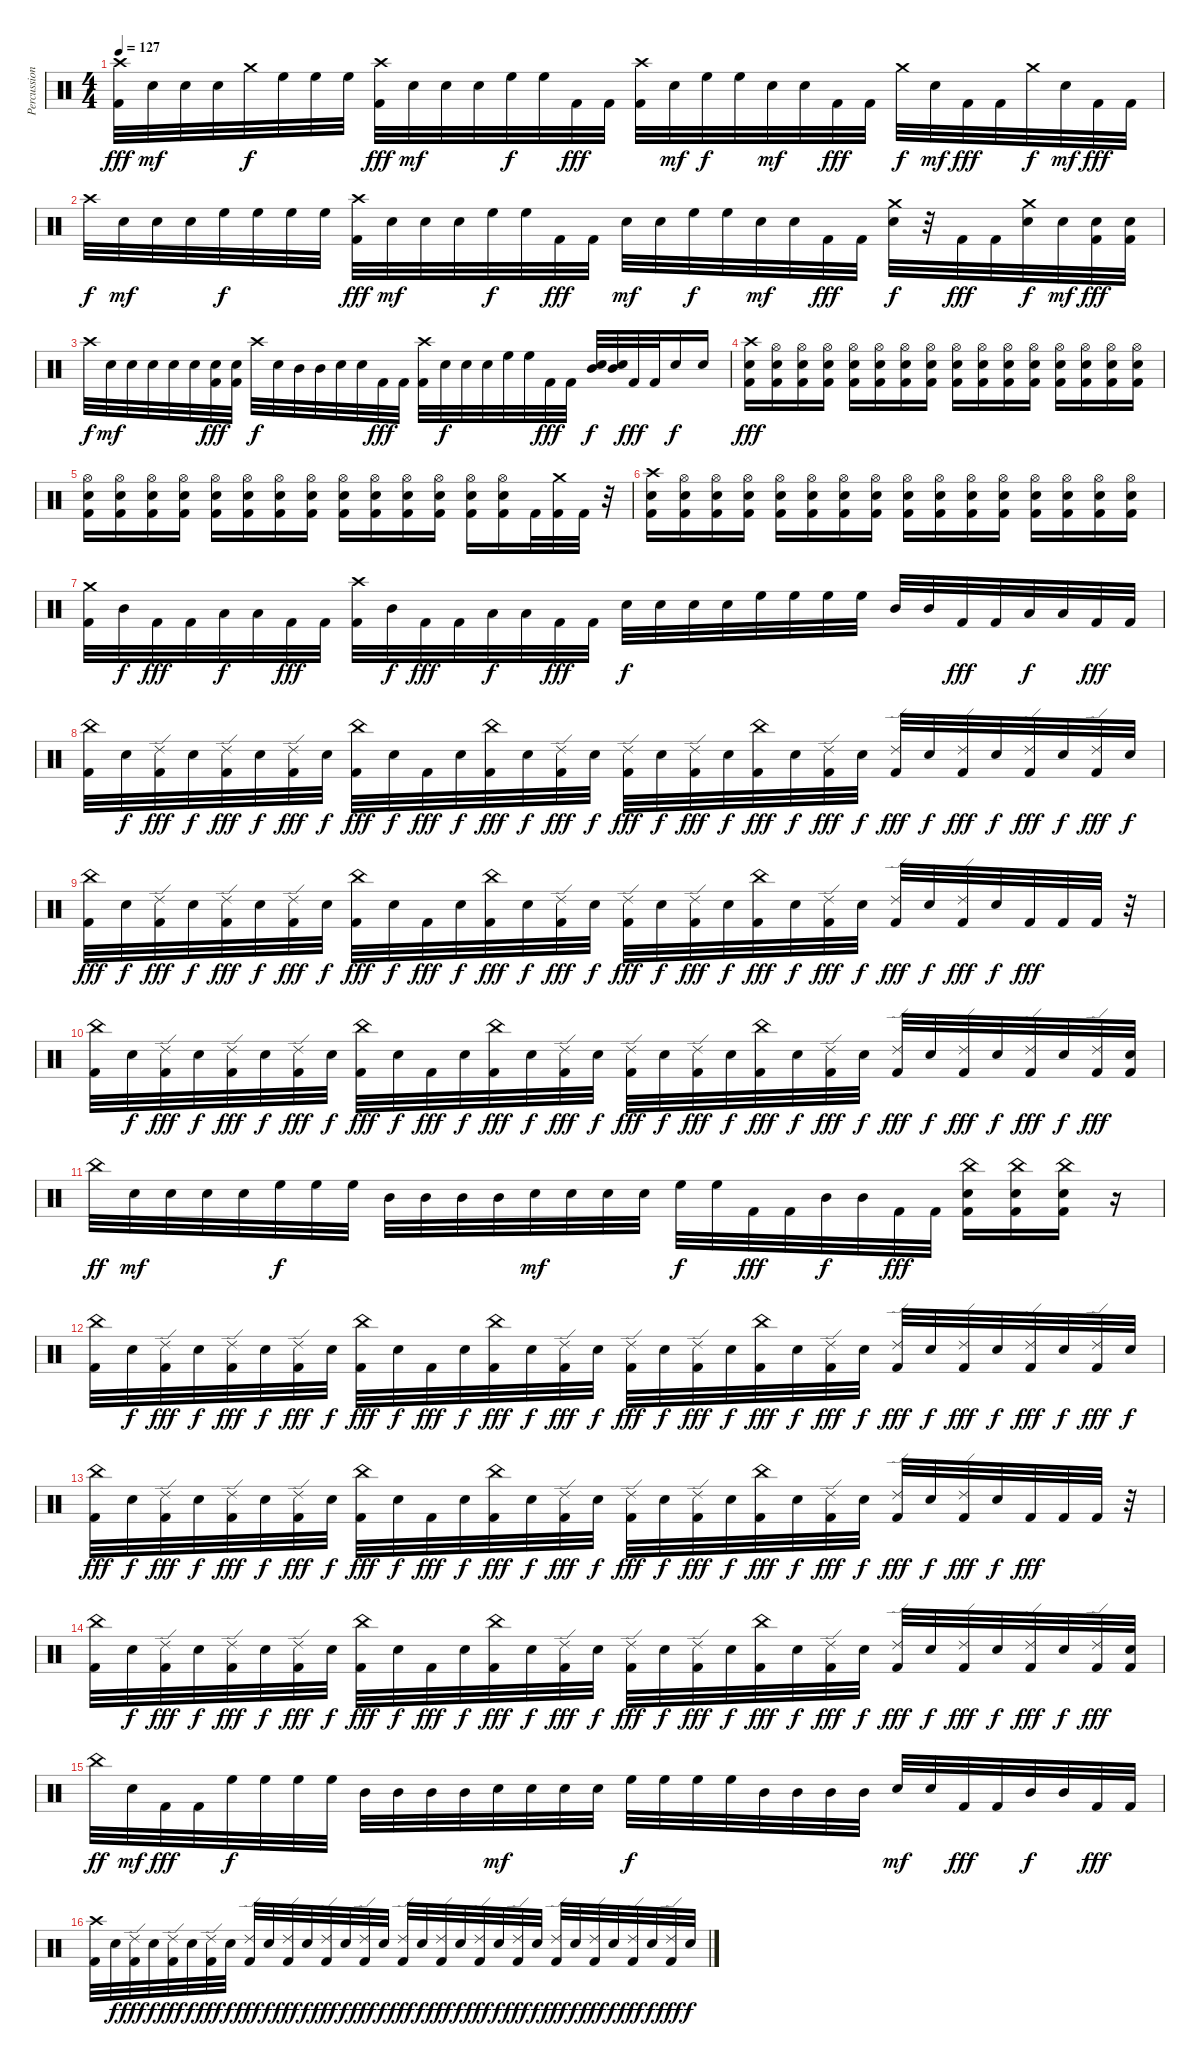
\track ("Percussion" "Percussion") {instrument percussion}
\staff {score}
\articulation defaults
\ts (4 4)
\tempo 127
\clef neutral
\ks c
("Crash high (hit)" "Kick (hit) 2").32{dy fff} "Electric Snare (hit)".32{dy mf} "Electric Snare (hit)".32 "Electric Snare (hit)".32 "Crash medium (hit)".32{dy f} "High Floor Tom (hit)".32 "High Floor Tom (hit)".32 "High Floor Tom (hit)".32 ("Crash high (hit)" "Kick (hit) 2").32{dy fff} "Electric Snare (hit)".32{dy mf} "Electric Snare (hit)".32 "Electric Snare (hit)".32 "High Floor Tom (hit)".32{dy f} "High Floor Tom (hit)".32 "Kick (hit) 2".32{dy fff} "Kick (hit) 2".32 ("Crash high (hit)" "Kick (hit) 2").32 "Electric Snare (hit)".32{dy mf} "High Floor Tom (hit)".32{dy f} "High Floor Tom (hit)".32 "Electric Snare (hit)".32{dy mf} "Electric Snare (hit)".32 "Kick (hit) 2".32{dy fff} "Kick (hit) 2".32 "Crash medium (hit)".32{dy f} "Electric Snare (hit)".32{dy mf} "Kick (hit) 2".32{dy fff} "Kick (hit) 2".32 "Crash medium (hit)".32{dy f} "Electric Snare (hit)".32{dy mf} "Kick (hit) 2".32{dy fff} "Kick (hit) 2".32 |
"Crash high (hit)".32{dy f} "Electric Snare (hit)".32{dy mf} "Electric Snare (hit)".32 "Electric Snare (hit)".32 "High Floor Tom (hit)".32{dy f} "High Floor Tom (hit)".32 "High Floor Tom (hit)".32 "High Floor Tom (hit)".32 ("Crash high (hit)" "Kick (hit) 2").32{dy fff} "Electric Snare (hit)".32{dy mf} "Electric Snare (hit)".32 "Electric Snare (hit)".32 "High Floor Tom (hit)".32{dy f} "High Floor Tom (hit)".32 "Kick (hit) 2".32{dy fff} "Kick (hit) 2".32 "Electric Snare (hit)".32{dy mf} "Electric Snare (hit)".32 "High Floor Tom (hit)".32{dy f} "High Floor Tom (hit)".32 "Electric Snare (hit)".32{dy mf} "Electric Snare (hit)".32 "Kick (hit) 2".32{dy fff} "Kick (hit) 2".32 ("Crash medium (hit)" "Electric Snare (hit)").32{dy f} r.32 "Kick (hit) 2".32{dy fff} "Kick (hit) 2".32 ("Crash medium (hit)" "Electric Snare (hit)").32{dy f} "Electric Snare (hit)".32{dy mf} ("Electric Snare (hit)" "Kick (hit) 2").32{dy fff} ("Electric Snare (hit)" "Kick (hit) 2").32 |
"Crash high (hit)".32{dy f} "Electric Snare (hit)".32{dy mf} "Electric Snare (hit)".32 "Electric Snare (hit)".32 "Electric Snare (hit)".32 "Electric Snare (hit)".32 ("Electric Snare (hit)" "Kick (hit) 2").32{dy fff} ("Electric Snare (hit)" "Kick (hit) 2").32 "Crash high (hit)".32{dy f} "Electric Snare (hit)".32 "Mid Tom (hit)".32 "Mid Tom (hit)".32 "Electric Snare (hit)".32 "Electric Snare (hit)".32 "Kick (hit) 2".32{dy fff} "Kick (hit) 2".32 ("Crash high (hit)" "Kick (hit) 2").32 "Electric Snare (hit)".32{dy f} "Electric Snare (hit)".32 "Electric Snare (hit)".32 "High Floor Tom (hit)".32 "High Floor Tom (hit)".32 "Kick (hit) 2".32{dy fff} "Kick (hit) 2".32 ("Mid Tom (hit)" "Electric Snare (hit)").32{dy f} ("Mid Tom (hit)" "Electric Snare (hit)").32 "Kick (hit) 2".32{dy fff} "Kick (hit) 2".32 "Electric Snare (hit)".16{dy f} "Electric Snare (hit)".16 |
("Crash high (hit)" "Electric Snare (hit)" "Kick (hit) 2").16{dy fff} ("Hi-Hat (open)" "Electric Snare (hit)" "Kick (hit) 2").16 ("Hi-Hat (open)" "Electric Snare (hit)" "Kick (hit) 2").16 ("Hi-Hat (open)" "Electric Snare (hit)" "Kick (hit) 2").16 ("Hi-Hat (open)" "Electric Snare (hit)" "Kick (hit) 2").16 ("Hi-Hat (open)" "Electric Snare (hit)" "Kick (hit) 2").16 ("Hi-Hat (open)" "Electric Snare (hit)" "Kick (hit) 2").16 ("Hi-Hat (open)" "Electric Snare (hit)" "Kick (hit) 2").16 ("Hi-Hat (open)" "Electric Snare (hit)" "Kick (hit) 2").16 ("Hi-Hat (open)" "Electric Snare (hit)" "Kick (hit) 2").16 ("Hi-Hat (open)" "Electric Snare (hit)" "Kick (hit) 2").16 ("Hi-Hat (open)" "Electric Snare (hit)" "Kick (hit) 2").16 ("Hi-Hat (open)" "Electric Snare (hit)" "Kick (hit) 2").16 ("Hi-Hat (open)" "Electric Snare (hit)" "Kick (hit) 2").16 ("Hi-Hat (open)" "Electric Snare (hit)" "Kick (hit) 2").16 ("Hi-Hat (open)" "Electric Snare (hit)" "Kick (hit) 2").16 |
("Hi-Hat (open)" "Electric Snare (hit)" "Kick (hit) 2").16 ("Hi-Hat (open)" "Electric Snare (hit)" "Kick (hit) 2").16 ("Hi-Hat (open)" "Electric Snare (hit)" "Kick (hit) 2").16 ("Hi-Hat (open)" "Electric Snare (hit)" "Kick (hit) 2").16 ("Hi-Hat (open)" "Electric Snare (hit)" "Kick (hit) 2").16 ("Hi-Hat (open)" "Electric Snare (hit)" "Kick (hit) 2").16 ("Hi-Hat (open)" "Electric Snare (hit)" "Kick (hit) 2").16 ("Hi-Hat (open)" "Electric Snare (hit)" "Kick (hit) 2").16 ("Hi-Hat (open)" "Electric Snare (hit)" "Kick (hit) 2").16 ("Hi-Hat (open)" "Electric Snare (hit)" "Kick (hit) 2").16 ("Hi-Hat (open)" "Electric Snare (hit)" "Kick (hit) 2").16 ("Hi-Hat (open)" "Electric Snare (hit)" "Kick (hit) 2").16 ("Hi-Hat (open)" "Electric Snare (hit)" "Kick (hit) 2").16 ("Hi-Hat (open)" "Electric Snare (hit)" "Kick (hit) 2").16 "Kick (hit) 2".32 ("Crash medium (hit)" "Kick (hit) 2").32 "Kick (hit) 2".32 r.32 |
("Crash high (hit)" "Electric Snare (hit)" "Kick (hit) 2").16 ("Hi-Hat (open)" "Electric Snare (hit)" "Kick (hit) 2").16 ("Hi-Hat (open)" "Electric Snare (hit)" "Kick (hit) 2").16 ("Hi-Hat (open)" "Electric Snare (hit)" "Kick (hit) 2").16 ("Hi-Hat (open)" "Electric Snare (hit)" "Kick (hit) 2").16 ("Hi-Hat (open)" "Electric Snare (hit)" "Kick (hit) 2").16 ("Hi-Hat (open)" "Electric Snare (hit)" "Kick (hit) 2").16 ("Hi-Hat (open)" "Electric Snare (hit)" "Kick (hit) 2").16 ("Hi-Hat (open)" "Electric Snare (hit)" "Kick (hit) 2").16 ("Hi-Hat (open)" "Electric Snare (hit)" "Kick (hit) 2").16 ("Hi-Hat (open)" "Electric Snare (hit)" "Kick (hit) 2").16 ("Hi-Hat (open)" "Electric Snare (hit)" "Kick (hit) 2").16 ("Hi-Hat (open)" "Electric Snare (hit)" "Kick (hit) 2").16 ("Hi-Hat (open)" "Electric Snare (hit)" "Kick (hit) 2").16 ("Hi-Hat (open)" "Electric Snare (hit)" "Kick (hit) 2").16 ("Hi-Hat (open)" "Electric Snare (hit)" "Kick (hit) 2").16 |
("Crash medium (hit)" "Kick (hit) 2").32 "Mid Tom (hit)".32{dy f} "Kick (hit) 2".32{dy fff} "Kick (hit) 2".32 "Low Tom (hit)".32{dy f} "Low Tom (hit)".32 "Kick (hit) 2".32{dy fff} "Kick (hit) 2".32 ("Crash high (hit)" "Kick (hit) 2").32 "Mid Tom (hit)".32{dy f} "Kick (hit) 2".32{dy fff} "Kick (hit) 2".32 "Low Tom (hit)".32{dy f} "Low Tom (hit)".32 "Kick (hit) 2".32{dy fff} "Kick (hit) 2".32 "Electric Snare (hit)".32{dy f} "Electric Snare (hit)".32 "Electric Snare (hit)".32 "Electric Snare (hit)".32 "High Floor Tom (hit)".32 "High Floor Tom (hit)".32 "High Floor Tom (hit)".32 "High Floor Tom (hit)".32 "Mid Tom (hit)".32 "Mid Tom (hit)".32 "Kick (hit) 2".32{dy fff} "Kick (hit) 2".32 "Low Tom (hit)".32{dy f} "Low Tom (hit)".32 "Kick (hit) 2".32{dy fff} "Kick (hit) 2".32 |
("China (hit)" "Kick (hit) 2").32 "Electric Snare (hit)".32{dy f} ("Ride (edge) 2" "Kick (hit) 2").32{dy fff} "Electric Snare (hit)".32{dy f} ("Ride (edge) 2" "Kick (hit) 2").32{dy fff} "Electric Snare (hit)".32{dy f} ("Ride (edge) 2" "Kick (hit) 2").32{dy fff} "Electric Snare (hit)".32{dy f} ("China (hit)" "Kick (hit) 2").32{dy fff} "Electric Snare (hit)".32{dy f} "Kick (hit) 2".32{dy fff} "Electric Snare (hit)".32{dy f} ("China (hit)" "Kick (hit) 2").32{dy fff} "Electric Snare (hit)".32{dy f} ("Ride (edge) 2" "Kick (hit) 2").32{dy fff} "Electric Snare (hit)".32{dy f} ("Ride (edge) 2" "Kick (hit) 2").32{dy fff} "Electric Snare (hit)".32{dy f} ("Ride (edge) 2" "Kick (hit) 2").32{dy fff} "Electric Snare (hit)".32{dy f} ("China (hit)" "Kick (hit) 2").32{dy fff} "Electric Snare (hit)".32{dy f} ("Ride (edge) 2" "Kick (hit) 2").32{dy fff} "Electric Snare (hit)".32{dy f} ("Ride (edge) 2" "Kick (hit) 2").32{dy fff} "Electric Snare (hit)".32{dy f} ("Ride (edge) 2" "Kick (hit) 2").32{dy fff} "Electric Snare (hit)".32{dy f} ("Ride (edge) 2" "Kick (hit) 2").32{dy fff} "Electric Snare (hit)".32{dy f} ("Ride (edge) 2" "Kick (hit) 2").32{dy fff} "Electric Snare (hit)".32{dy f} |
("China (hit)" "Kick (hit) 2").32{dy fff} "Electric Snare (hit)".32{dy f} ("Ride (edge) 2" "Kick (hit) 2").32{dy fff} "Electric Snare (hit)".32{dy f} ("Ride (edge) 2" "Kick (hit) 2").32{dy fff} "Electric Snare (hit)".32{dy f} ("Ride (edge) 2" "Kick (hit) 2").32{dy fff} "Electric Snare (hit)".32{dy f} ("China (hit)" "Kick (hit) 2").32{dy fff} "Electric Snare (hit)".32{dy f} "Kick (hit) 2".32{dy fff} "Electric Snare (hit)".32{dy f} ("China (hit)" "Kick (hit) 2").32{dy fff} "Electric Snare (hit)".32{dy f} ("Ride (edge) 2" "Kick (hit) 2").32{dy fff} "Electric Snare (hit)".32{dy f} ("Ride (edge) 2" "Kick (hit) 2").32{dy fff} "Electric Snare (hit)".32{dy f} ("Ride (edge) 2" "Kick (hit) 2").32{dy fff} "Electric Snare (hit)".32{dy f} ("China (hit)" "Kick (hit) 2").32{dy fff} "Electric Snare (hit)".32{dy f} ("Ride (edge) 2" "Kick (hit) 2").32{dy fff} "Electric Snare (hit)".32{dy f} ("Ride (edge) 2" "Kick (hit) 2").32{dy fff} "Electric Snare (hit)".32{dy f} ("Ride (edge) 2" "Kick (hit) 2").32{dy fff} "Electric Snare (hit)".32{dy f} "Kick (hit) 2".32{dy fff} "Kick (hit) 2".32 "Kick (hit) 2".32 r.32 |
("China (hit)" "Kick (hit) 2").32 "Electric Snare (hit)".32{dy f} ("Ride (edge) 2" "Kick (hit) 2").32{dy fff} "Electric Snare (hit)".32{dy f} ("Ride (edge) 2" "Kick (hit) 2").32{dy fff} "Electric Snare (hit)".32{dy f} ("Ride (edge) 2" "Kick (hit) 2").32{dy fff} "Electric Snare (hit)".32{dy f} ("China (hit)" "Kick (hit) 2").32{dy fff} "Electric Snare (hit)".32{dy f} "Kick (hit) 2".32{dy fff} "Electric Snare (hit)".32{dy f} ("China (hit)" "Kick (hit) 2").32{dy fff} "Electric Snare (hit)".32{dy f} ("Ride (edge) 2" "Kick (hit) 2").32{dy fff} "Electric Snare (hit)".32{dy f} ("Ride (edge) 2" "Kick (hit) 2").32{dy fff} "Electric Snare (hit)".32{dy f} ("Ride (edge) 2" "Kick (hit) 2").32{dy fff} "Electric Snare (hit)".32{dy f} ("China (hit)" "Kick (hit) 2").32{dy fff} "Electric Snare (hit)".32{dy f} ("Ride (edge) 2" "Kick (hit) 2").32{dy fff} "Electric Snare (hit)".32{dy f} ("Ride (edge) 2" "Kick (hit) 2").32{dy fff} "Electric Snare (hit)".32{dy f} ("Ride (edge) 2" "Kick (hit) 2").32{dy fff} "Electric Snare (hit)".32{dy f} ("Ride (edge) 2" "Kick (hit) 2").32{dy fff} "Electric Snare (hit)".32{dy f} ("Ride (edge) 2" "Kick (hit) 2").32{dy fff} ("Electric Snare (hit)" "Kick (hit) 2").32 |
"China (hit)".32{dy ff} "Electric Snare (hit)".32{dy mf} "Electric Snare (hit)".32 "Electric Snare (hit)".32 "Electric Snare (hit)".32 "High Floor Tom (hit)".32{dy f} "High Floor Tom (hit)".32 "High Floor Tom (hit)".32 "Mid Tom (hit)".32 "Mid Tom (hit)".32 "Mid Tom (hit)".32 "Mid Tom (hit)".32 "Electric Snare (hit)".32{dy mf} "Electric Snare (hit)".32 "Electric Snare (hit)".32 "Electric Snare (hit)".32 "High Floor Tom (hit)".32{dy f} "High Floor Tom (hit)".32 "Kick (hit) 2".32{dy fff} "Kick (hit) 2".32 "Mid Tom (hit)".32{dy f} "Mid Tom (hit)".32 "Kick (hit) 2".32{dy fff} "Kick (hit) 2".32 ("China (hit)" "Electric Snare (hit)" "Kick (hit) 2").16 ("China (hit)" "Electric Snare (hit)" "Kick (hit) 2").16 ("China (hit)" "Electric Snare (hit)" "Kick (hit) 2").16 r.16 |
("China (hit)" "Kick (hit) 2").32 "Electric Snare (hit)".32{dy f} ("Ride (edge) 2" "Kick (hit) 2").32{dy fff} "Electric Snare (hit)".32{dy f} ("Ride (edge) 2" "Kick (hit) 2").32{dy fff} "Electric Snare (hit)".32{dy f} ("Ride (edge) 2" "Kick (hit) 2").32{dy fff} "Electric Snare (hit)".32{dy f} ("China (hit)" "Kick (hit) 2").32{dy fff} "Electric Snare (hit)".32{dy f} "Kick (hit) 2".32{dy fff} "Electric Snare (hit)".32{dy f} ("China (hit)" "Kick (hit) 2").32{dy fff} "Electric Snare (hit)".32{dy f} ("Ride (edge) 2" "Kick (hit) 2").32{dy fff} "Electric Snare (hit)".32{dy f} ("Ride (edge) 2" "Kick (hit) 2").32{dy fff} "Electric Snare (hit)".32{dy f} ("Ride (edge) 2" "Kick (hit) 2").32{dy fff} "Electric Snare (hit)".32{dy f} ("China (hit)" "Kick (hit) 2").32{dy fff} "Electric Snare (hit)".32{dy f} ("Ride (edge) 2" "Kick (hit) 2").32{dy fff} "Electric Snare (hit)".32{dy f} ("Ride (edge) 2" "Kick (hit) 2").32{dy fff} "Electric Snare (hit)".32{dy f} ("Ride (edge) 2" "Kick (hit) 2").32{dy fff} "Electric Snare (hit)".32{dy f} ("Ride (edge) 2" "Kick (hit) 2").32{dy fff} "Electric Snare (hit)".32{dy f} ("Ride (edge) 2" "Kick (hit) 2").32{dy fff} "Electric Snare (hit)".32{dy f} |
("China (hit)" "Kick (hit) 2").32{dy fff} "Electric Snare (hit)".32{dy f} ("Ride (edge) 2" "Kick (hit) 2").32{dy fff} "Electric Snare (hit)".32{dy f} ("Ride (edge) 2" "Kick (hit) 2").32{dy fff} "Electric Snare (hit)".32{dy f} ("Ride (edge) 2" "Kick (hit) 2").32{dy fff} "Electric Snare (hit)".32{dy f} ("China (hit)" "Kick (hit) 2").32{dy fff} "Electric Snare (hit)".32{dy f} "Kick (hit) 2".32{dy fff} "Electric Snare (hit)".32{dy f} ("China (hit)" "Kick (hit) 2").32{dy fff} "Electric Snare (hit)".32{dy f} ("Ride (edge) 2" "Kick (hit) 2").32{dy fff} "Electric Snare (hit)".32{dy f} ("Ride (edge) 2" "Kick (hit) 2").32{dy fff} "Electric Snare (hit)".32{dy f} ("Ride (edge) 2" "Kick (hit) 2").32{dy fff} "Electric Snare (hit)".32{dy f} ("China (hit)" "Kick (hit) 2").32{dy fff} "Electric Snare (hit)".32{dy f} ("Ride (edge) 2" "Kick (hit) 2").32{dy fff} "Electric Snare (hit)".32{dy f} ("Ride (edge) 2" "Kick (hit) 2").32{dy fff} "Electric Snare (hit)".32{dy f} ("Ride (edge) 2" "Kick (hit) 2").32{dy fff} "Electric Snare (hit)".32{dy f} "Kick (hit) 2".32{dy fff} "Kick (hit) 2".32 "Kick (hit) 2".32 r.32 |
("China (hit)" "Kick (hit) 2").32 "Electric Snare (hit)".32{dy f} ("Ride (edge) 2" "Kick (hit) 2").32{dy fff} "Electric Snare (hit)".32{dy f} ("Ride (edge) 2" "Kick (hit) 2").32{dy fff} "Electric Snare (hit)".32{dy f} ("Ride (edge) 2" "Kick (hit) 2").32{dy fff} "Electric Snare (hit)".32{dy f} ("China (hit)" "Kick (hit) 2").32{dy fff} "Electric Snare (hit)".32{dy f} "Kick (hit) 2".32{dy fff} "Electric Snare (hit)".32{dy f} ("China (hit)" "Kick (hit) 2").32{dy fff} "Electric Snare (hit)".32{dy f} ("Ride (edge) 2" "Kick (hit) 2").32{dy fff} "Electric Snare (hit)".32{dy f} ("Ride (edge) 2" "Kick (hit) 2").32{dy fff} "Electric Snare (hit)".32{dy f} ("Ride (edge) 2" "Kick (hit) 2").32{dy fff} "Electric Snare (hit)".32{dy f} ("China (hit)" "Kick (hit) 2").32{dy fff} "Electric Snare (hit)".32{dy f} ("Ride (edge) 2" "Kick (hit) 2").32{dy fff} "Electric Snare (hit)".32{dy f} ("Ride (edge) 2" "Kick (hit) 2").32{dy fff} "Electric Snare (hit)".32{dy f} ("Ride (edge) 2" "Kick (hit) 2").32{dy fff} "Electric Snare (hit)".32{dy f} ("Ride (edge) 2" "Kick (hit) 2").32{dy fff} "Electric Snare (hit)".32{dy f} ("Ride (edge) 2" "Kick (hit) 2").32{dy fff} ("Electric Snare (hit)" "Kick (hit) 2").32 |
"China (hit)".32{dy ff} "Electric Snare (hit)".32{dy mf} "Kick (hit) 2".32{dy fff} "Kick (hit) 2".32 "High Floor Tom (hit)".32{dy f} "High Floor Tom (hit)".32 "High Floor Tom (hit)".32 "High Floor Tom (hit)".32 "Mid Tom (hit)".32 "Mid Tom (hit)".32 "Mid Tom (hit)".32 "Mid Tom (hit)".32 "Electric Snare (hit)".32{dy mf} "Electric Snare (hit)".32 "Electric Snare (hit)".32 "Electric Snare (hit)".32 "High Floor Tom (hit)".32{dy f} "High Floor Tom (hit)".32 "High Floor Tom (hit)".32 "High Floor Tom (hit)".32 "Mid Tom (hit)".32 "Mid Tom (hit)".32 "Mid Tom (hit)".32 "Mid Tom (hit)".32 "Electric Snare (hit)".32{dy mf} "Electric Snare (hit)".32 "Kick (hit) 2".32{dy fff} "Kick (hit) 2".32 "Mid Tom (hit)".32{dy f} "Mid Tom (hit)".32 "Kick (hit) 2".32{dy fff} "Kick (hit) 2".32 |
("Crash high (hit)" "Kick (hit) 2").32 "Electric Snare (hit)".32{dy f} ("Ride (edge) 2" "Kick (hit) 2").32{dy fff} "Electric Snare (hit)".32{dy f} ("Ride (edge) 2" "Kick (hit) 2").32{dy fff} "Electric Snare (hit)".32{dy f} ("Ride (edge) 2" "Kick (hit) 2").32{dy fff} "Electric Snare (hit)".32{dy f} ("Ride (edge) 2" "Kick (hit) 2").32{dy fff} "Electric Snare (hit)".32{dy f} ("Ride (edge) 2" "Kick (hit) 2").32{dy fff} "Electric Snare (hit)".32{dy f} ("Ride (edge) 2" "Kick (hit) 2").32{dy fff} "Electric Snare (hit)".32{dy f} ("Ride (edge) 2" "Kick (hit) 2").32{dy fff} "Electric Snare (hit)".32{dy f} ("Ride (edge) 2" "Kick (hit) 2").32{dy fff} "Electric Snare (hit)".32{dy f} ("Ride (edge) 2" "Kick (hit) 2").32{dy fff} "Electric Snare (hit)".32{dy f} ("Ride (edge) 2" "Kick (hit) 2").32{dy fff} "Electric Snare (hit)".32{dy f} ("Ride (edge) 2" "Kick (hit) 2").32{dy fff} "Electric Snare (hit)".32{dy f} ("Ride (edge) 2" "Kick (hit) 2").32{dy fff} "Electric Snare (hit)".32{dy f} ("Ride (edge) 2" "Kick (hit) 2").32{dy fff} "Electric Snare (hit)".32{dy f} ("Ride (edge) 2" "Kick (hit) 2").32{dy fff} "Electric Snare (hit)".32{dy f} ("Ride (edge) 2" "Kick (hit) 2").32{dy fff} "Electric Snare (hit)".32{dy f}
